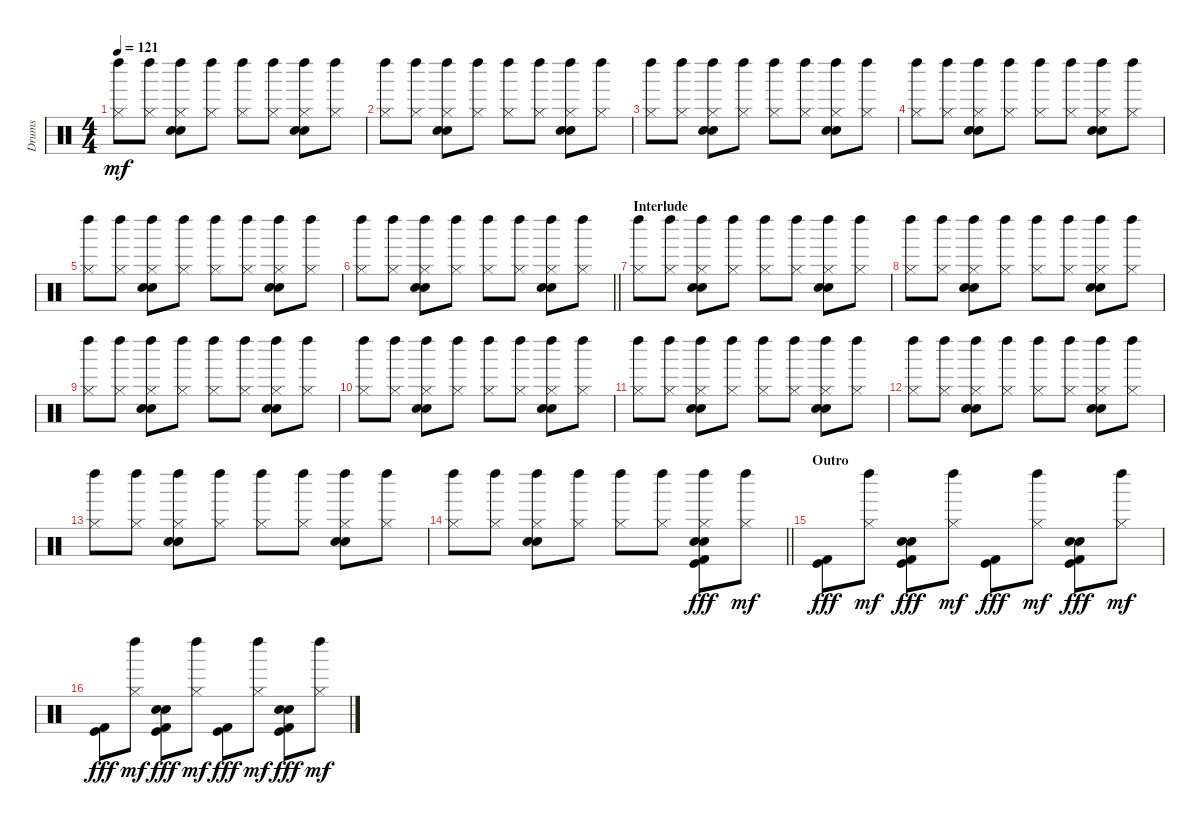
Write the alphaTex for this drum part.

\track ("Drums" "Drums") {instrument percussion}
\staff {score}
\articulation defaults
\ts (4 4)
\tempo 121
\clef neutral
\ks c
("Left Maraca (hit)" "Hi-Hat (closed)").8{dy mf} ("Left Maraca (hit)" "Hi-Hat (closed)").8 ("Left Maraca (hit)" "Hi-Hat (closed)" "Hand Clap (hit)" "Hand Clap (hit)").8 ("Left Maraca (hit)" "Hi-Hat (closed)").8 ("Left Maraca (hit)" "Hi-Hat (closed)").8 ("Left Maraca (hit)" "Hi-Hat (closed)").8 ("Left Maraca (hit)" "Hi-Hat (closed)" "Hand Clap (hit)" "Hand Clap (hit)").8 ("Left Maraca (hit)" "Hi-Hat (closed)").8 |
("Left Maraca (hit)" "Hi-Hat (closed)").8 ("Left Maraca (hit)" "Hi-Hat (closed)").8 ("Left Maraca (hit)" "Hi-Hat (closed)" "Hand Clap (hit)" "Hand Clap (hit)").8 ("Left Maraca (hit)" "Hi-Hat (closed)").8 ("Left Maraca (hit)" "Hi-Hat (closed)").8 ("Left Maraca (hit)" "Hi-Hat (closed)").8 ("Left Maraca (hit)" "Hi-Hat (closed)" "Hand Clap (hit)" "Hand Clap (hit)").8 ("Left Maraca (hit)" "Hi-Hat (closed)").8 |
("Left Maraca (hit)" "Hi-Hat (closed)").8 ("Left Maraca (hit)" "Hi-Hat (closed)").8 ("Left Maraca (hit)" "Hi-Hat (closed)" "Hand Clap (hit)" "Hand Clap (hit)").8 ("Left Maraca (hit)" "Hi-Hat (closed)").8 ("Left Maraca (hit)" "Hi-Hat (closed)").8 ("Left Maraca (hit)" "Hi-Hat (closed)").8 ("Left Maraca (hit)" "Hi-Hat (closed)" "Hand Clap (hit)" "Hand Clap (hit)").8 ("Left Maraca (hit)" "Hi-Hat (closed)").8 |
("Left Maraca (hit)" "Hi-Hat (closed)").8 ("Left Maraca (hit)" "Hi-Hat (closed)").8 ("Left Maraca (hit)" "Hi-Hat (closed)" "Hand Clap (hit)" "Hand Clap (hit)").8 ("Left Maraca (hit)" "Hi-Hat (closed)").8 ("Left Maraca (hit)" "Hi-Hat (closed)").8 ("Left Maraca (hit)" "Hi-Hat (closed)").8 ("Left Maraca (hit)" "Hi-Hat (closed)" "Hand Clap (hit)" "Hand Clap (hit)").8 ("Left Maraca (hit)" "Hi-Hat (closed)").8 |
("Left Maraca (hit)" "Hi-Hat (closed)").8 ("Left Maraca (hit)" "Hi-Hat (closed)").8 ("Left Maraca (hit)" "Hi-Hat (closed)" "Hand Clap (hit)" "Hand Clap (hit)").8 ("Left Maraca (hit)" "Hi-Hat (closed)").8 ("Left Maraca (hit)" "Hi-Hat (closed)").8 ("Left Maraca (hit)" "Hi-Hat (closed)").8 ("Left Maraca (hit)" "Hi-Hat (closed)" "Hand Clap (hit)" "Hand Clap (hit)").8 ("Left Maraca (hit)" "Hi-Hat (closed)").8 |
\barLineRight lightlight
("Left Maraca (hit)" "Hi-Hat (closed)").8 ("Left Maraca (hit)" "Hi-Hat (closed)").8 ("Left Maraca (hit)" "Hi-Hat (closed)" "Hand Clap (hit)" "Hand Clap (hit)").8 ("Left Maraca (hit)" "Hi-Hat (closed)").8 ("Left Maraca (hit)" "Hi-Hat (closed)").8 ("Left Maraca (hit)" "Hi-Hat (closed)").8 ("Left Maraca (hit)" "Hi-Hat (closed)" "Hand Clap (hit)" "Hand Clap (hit)").8 ("Left Maraca (hit)" "Hi-Hat (closed)").8 |
\section ("" "Interlude")
("Left Maraca (hit)" "Hi-Hat (closed)").8 ("Left Maraca (hit)" "Hi-Hat (closed)").8 ("Left Maraca (hit)" "Hi-Hat (closed)" "Hand Clap (hit)" "Hand Clap (hit)").8 ("Left Maraca (hit)" "Hi-Hat (closed)").8 ("Left Maraca (hit)" "Hi-Hat (closed)").8 ("Left Maraca (hit)" "Hi-Hat (closed)").8 ("Left Maraca (hit)" "Hi-Hat (closed)" "Hand Clap (hit)" "Hand Clap (hit)").8 ("Left Maraca (hit)" "Hi-Hat (closed)").8 |
("Left Maraca (hit)" "Hi-Hat (closed)").8 ("Left Maraca (hit)" "Hi-Hat (closed)").8 ("Left Maraca (hit)" "Hi-Hat (closed)" "Hand Clap (hit)" "Hand Clap (hit)").8 ("Left Maraca (hit)" "Hi-Hat (closed)").8 ("Left Maraca (hit)" "Hi-Hat (closed)").8 ("Left Maraca (hit)" "Hi-Hat (closed)").8 ("Left Maraca (hit)" "Hi-Hat (closed)" "Hand Clap (hit)" "Hand Clap (hit)").8 ("Left Maraca (hit)" "Hi-Hat (closed)").8 |
("Left Maraca (hit)" "Hi-Hat (closed)").8 ("Left Maraca (hit)" "Hi-Hat (closed)").8 ("Left Maraca (hit)" "Hi-Hat (closed)" "Hand Clap (hit)" "Hand Clap (hit)").8 ("Left Maraca (hit)" "Hi-Hat (closed)").8 ("Left Maraca (hit)" "Hi-Hat (closed)").8 ("Left Maraca (hit)" "Hi-Hat (closed)").8 ("Left Maraca (hit)" "Hi-Hat (closed)" "Hand Clap (hit)" "Hand Clap (hit)").8 ("Left Maraca (hit)" "Hi-Hat (closed)").8 |
("Left Maraca (hit)" "Hi-Hat (closed)").8 ("Left Maraca (hit)" "Hi-Hat (closed)").8 ("Left Maraca (hit)" "Hi-Hat (closed)" "Hand Clap (hit)" "Hand Clap (hit)").8 ("Left Maraca (hit)" "Hi-Hat (closed)").8 ("Left Maraca (hit)" "Hi-Hat (closed)").8 ("Left Maraca (hit)" "Hi-Hat (closed)").8 ("Left Maraca (hit)" "Hi-Hat (closed)" "Hand Clap (hit)" "Hand Clap (hit)").8 ("Left Maraca (hit)" "Hi-Hat (closed)").8 |
("Left Maraca (hit)" "Hi-Hat (closed)").8 ("Left Maraca (hit)" "Hi-Hat (closed)").8 ("Left Maraca (hit)" "Hi-Hat (closed)" "Hand Clap (hit)" "Hand Clap (hit)").8 ("Left Maraca (hit)" "Hi-Hat (closed)").8 ("Left Maraca (hit)" "Hi-Hat (closed)").8 ("Left Maraca (hit)" "Hi-Hat (closed)").8 ("Left Maraca (hit)" "Hi-Hat (closed)" "Hand Clap (hit)" "Hand Clap (hit)").8 ("Left Maraca (hit)" "Hi-Hat (closed)").8 |
("Left Maraca (hit)" "Hi-Hat (closed)").8 ("Left Maraca (hit)" "Hi-Hat (closed)").8 ("Left Maraca (hit)" "Hi-Hat (closed)" "Hand Clap (hit)" "Hand Clap (hit)").8 ("Left Maraca (hit)" "Hi-Hat (closed)").8 ("Left Maraca (hit)" "Hi-Hat (closed)").8 ("Left Maraca (hit)" "Hi-Hat (closed)").8 ("Left Maraca (hit)" "Hi-Hat (closed)" "Hand Clap (hit)" "Hand Clap (hit)").8 ("Left Maraca (hit)" "Hi-Hat (closed)").8 |
("Left Maraca (hit)" "Hi-Hat (closed)").8 ("Left Maraca (hit)" "Hi-Hat (closed)").8 ("Left Maraca (hit)" "Hi-Hat (closed)" "Hand Clap (hit)" "Hand Clap (hit)").8 ("Left Maraca (hit)" "Hi-Hat (closed)").8 ("Left Maraca (hit)" "Hi-Hat (closed)").8 ("Left Maraca (hit)" "Hi-Hat (closed)").8 ("Left Maraca (hit)" "Hi-Hat (closed)" "Hand Clap (hit)" "Hand Clap (hit)").8 ("Left Maraca (hit)" "Hi-Hat (closed)").8 |
\barLineRight lightlight
("Left Maraca (hit)" "Hi-Hat (closed)").8 ("Left Maraca (hit)" "Hi-Hat (closed)").8 ("Left Maraca (hit)" "Hi-Hat (closed)" "Hand Clap (hit)" "Hand Clap (hit)").8 ("Left Maraca (hit)" "Hi-Hat (closed)").8 ("Left Maraca (hit)" "Hi-Hat (closed)").8 ("Left Maraca (hit)" "Hi-Hat (closed)").8 ("Left Maraca (hit)" "Hi-Hat (closed)" "Hand Clap (hit)" "Hand Clap (hit)" "Kick (hit)" "Kick (hit) 2").8{dy fff} ("Left Maraca (hit)" "Hi-Hat (closed)").8{dy mf} |
\section ("" "Outro")
("Kick (hit)" "Kick (hit) 2").8{dy fff} ("Left Maraca (hit)" "Hi-Hat (closed)").8{dy mf} ("Hand Clap (hit)" "Snare (hit) 2" "Kick (hit)" "Kick (hit) 2").8{dy fff} ("Left Maraca (hit)" "Hi-Hat (closed)").8{dy mf} ("Kick (hit)" "Kick (hit) 2").8{dy fff} ("Left Maraca (hit)" "Hi-Hat (closed)").8{dy mf} ("Hand Clap (hit)" "Snare (hit) 2" "Kick (hit)" "Kick (hit) 2").8{dy fff} ("Left Maraca (hit)" "Hi-Hat (closed)").8{dy mf} |
("Kick (hit)" "Kick (hit) 2").8{dy fff} ("Left Maraca (hit)" "Hi-Hat (closed)").8{dy mf} ("Hand Clap (hit)" "Snare (hit) 2" "Kick (hit)" "Kick (hit) 2").8{dy fff} ("Left Maraca (hit)" "Hi-Hat (closed)").8{dy mf} ("Kick (hit)" "Kick (hit) 2").8{dy fff} ("Left Maraca (hit)" "Hi-Hat (closed)").8{dy mf} ("Hand Clap (hit)" "Snare (hit) 2" "Kick (hit)" "Kick (hit) 2").8{dy fff} ("Left Maraca (hit)" "Hi-Hat (closed)").8{dy mf}
